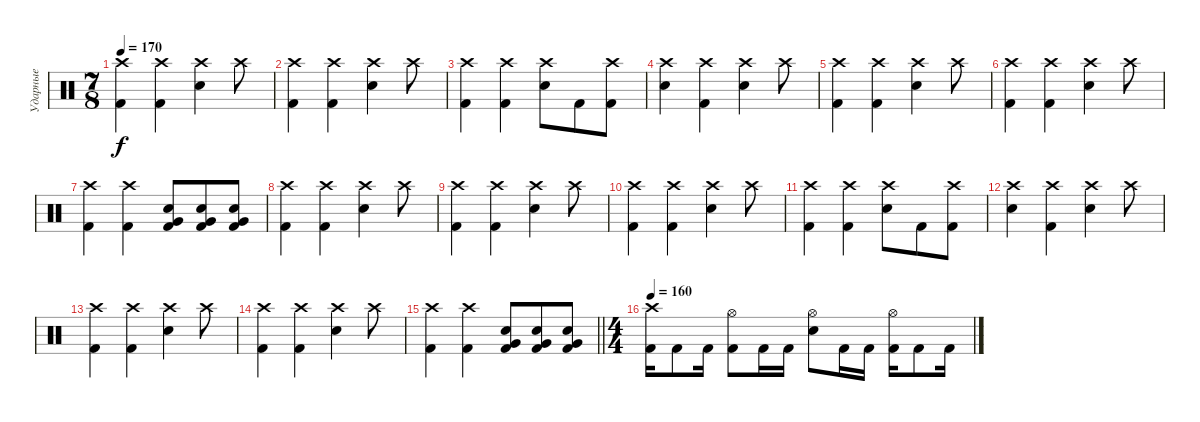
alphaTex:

\track ("Ударные" "Ударные") {instrument percussion}
\staff {score}
\articulation defaults
\ts (7 8)
\tempo 170
\clef neutral
\ks c
("Crash high (hit)" "Kick (hit) 2").4{dy f} ("Crash high (hit)" "Kick (hit) 2").4 ("Crash high (hit)" "Electric Snare (hit)").4 "Crash high (hit)".8 |
("Crash high (hit)" "Kick (hit) 2").4 ("Crash high (hit)" "Kick (hit) 2").4 ("Crash high (hit)" "Electric Snare (hit)").4 "Crash high (hit)".8 |
("Crash high (hit)" "Kick (hit) 2").4 ("Crash high (hit)" "Kick (hit) 2").4 ("Crash high (hit)" "Electric Snare (hit)").8 "Kick (hit) 2".8 ("Crash high (hit)" "Kick (hit) 2").8 |
("Crash high (hit)" "Electric Snare (hit)").4 ("Crash high (hit)" "Kick (hit) 2").4 ("Crash high (hit)" "Electric Snare (hit)").4 "Crash high (hit)".8 |
("Crash high (hit)" "Kick (hit) 2").4 ("Crash high (hit)" "Kick (hit) 2").4 ("Crash high (hit)" "Electric Snare (hit)").4 "Crash high (hit)".8 |
("Crash high (hit)" "Kick (hit) 2").4 ("Crash high (hit)" "Kick (hit) 2").4 ("Crash high (hit)" "Electric Snare (hit)").4 "Crash high (hit)".8 |
("Crash high (hit)" "Kick (hit) 2").4 ("Crash high (hit)" "Kick (hit) 2").4 ("Electric Snare (hit)" "Very Low Tom (hit)" "Kick (hit) 2").8 ("Electric Snare (hit)" "Very Low Tom (hit)" "Kick (hit) 2").8 ("Electric Snare (hit)" "Very Low Tom (hit)" "Kick (hit) 2").8 |
("Crash high (hit)" "Kick (hit) 2").4 ("Crash high (hit)" "Kick (hit) 2").4 ("Crash high (hit)" "Electric Snare (hit)").4 "Crash high (hit)".8 |
("Crash high (hit)" "Kick (hit) 2").4 ("Crash high (hit)" "Kick (hit) 2").4 ("Crash high (hit)" "Electric Snare (hit)").4 "Crash high (hit)".8 |
("Crash high (hit)" "Kick (hit) 2").4 ("Crash high (hit)" "Kick (hit) 2").4 ("Crash high (hit)" "Electric Snare (hit)").4 "Crash high (hit)".8 |
("Crash high (hit)" "Kick (hit) 2").4 ("Crash high (hit)" "Kick (hit) 2").4 ("Crash high (hit)" "Electric Snare (hit)").8 "Kick (hit) 2".8 ("Crash high (hit)" "Kick (hit) 2").8 |
("Crash high (hit)" "Electric Snare (hit)").4 ("Crash high (hit)" "Kick (hit) 2").4 ("Crash high (hit)" "Electric Snare (hit)").4 "Crash high (hit)".8 |
("Crash high (hit)" "Kick (hit) 2").4 ("Crash high (hit)" "Kick (hit) 2").4 ("Crash high (hit)" "Electric Snare (hit)").4 "Crash high (hit)".8 |
("Crash high (hit)" "Kick (hit) 2").4 ("Crash high (hit)" "Kick (hit) 2").4 ("Crash high (hit)" "Electric Snare (hit)").4 "Crash high (hit)".8 |
\barLineRight lightlight
("Crash high (hit)" "Kick (hit) 2").4 ("Crash high (hit)" "Kick (hit) 2").4 ("Electric Snare (hit)" "Very Low Tom (hit)" "Kick (hit) 2").8 ("Electric Snare (hit)" "Very Low Tom (hit)" "Kick (hit) 2").8 ("Electric Snare (hit)" "Very Low Tom (hit)" "Kick (hit) 2").8 |
\ts (4 4)
\tempo 160
("Crash high (hit)" "Kick (hit) 2").16 "Kick (hit) 2".8 "Kick (hit) 2".16 ("Hi-Hat (open)" "Kick (hit) 2").8 "Kick (hit) 2".16 "Kick (hit) 2".16 ("Hi-Hat (open)" "Electric Snare (hit)").8 "Kick (hit) 2".16 "Kick (hit) 2".16 ("Hi-Hat (open)" "Kick (hit) 2").16 "Kick (hit) 2".8 "Kick (hit) 2".16
